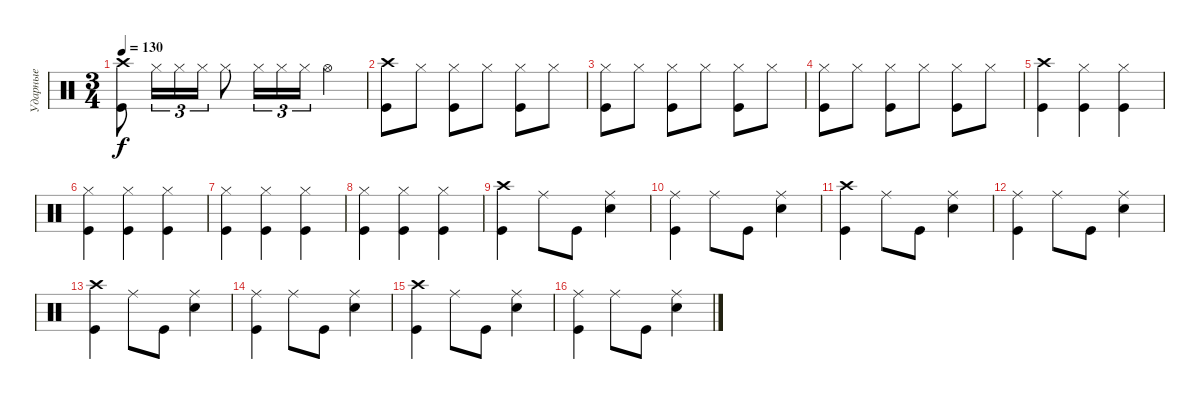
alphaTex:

\track ("Ударные" "Ударные") {instrument percussion}
\staff {score}
\articulation defaults
\ts (3 4)
\tempo 130
\clef neutral
\ks c
("Crash high (hit)" "Kick (hit)").8{dy f} "Hi-Hat (closed)".16{tu (3 2)} "Hi-Hat (closed)".16{tu (3 2)} "Hi-Hat (closed)".16{tu (3 2)} "Hi-Hat (closed)".8 "Hi-Hat (closed)".16{tu (3 2)} "Hi-Hat (closed)".16{tu (3 2)} "Hi-Hat (closed)".16{tu (3 2)} "Hi-Hat (open)".4 |
("Crash high (hit)" "Kick (hit)").8 "Hi-Hat (closed)".8 ("Hi-Hat (closed)" "Kick (hit)").8 "Hi-Hat (closed)".8 ("Hi-Hat (closed)" "Kick (hit)").8 "Hi-Hat (closed)".8 |
("Hi-Hat (closed)" "Kick (hit)").8 "Hi-Hat (closed)".8 ("Hi-Hat (closed)" "Kick (hit)").8 "Hi-Hat (closed)".8 ("Hi-Hat (closed)" "Kick (hit)").8 "Hi-Hat (closed)".8 |
("Hi-Hat (closed)" "Kick (hit)").8 "Hi-Hat (closed)".8 ("Hi-Hat (closed)" "Kick (hit)").8 "Hi-Hat (closed)".8 ("Hi-Hat (closed)" "Kick (hit)").8 "Hi-Hat (closed)".8 |
("Crash high (hit)" "Kick (hit)").4 ("Kick (hit)" "Hi-Hat (closed)").4 ("Hi-Hat (closed)" "Kick (hit)").4 |
("Hi-Hat (closed)" "Kick (hit)").4 ("Kick (hit)" "Hi-Hat (closed)").4 ("Hi-Hat (closed)" "Kick (hit)").4 |
("Hi-Hat (closed)" "Kick (hit)").4 ("Kick (hit)" "Hi-Hat (closed)").4 ("Hi-Hat (closed)" "Kick (hit)").4 |
("Hi-Hat (closed)" "Kick (hit)").4 ("Kick (hit)" "Hi-Hat (closed)").4 ("Hi-Hat (closed)" "Kick (hit)").4 |
("Crash high (hit)" "Kick (hit)").4 "Ride (middle)".8 "Kick (hit)".8 ("Ride (middle)" "Snare (hit) 2").4 |
("Ride (middle)" "Kick (hit)").4 "Ride (middle)".8 "Kick (hit)".8 ("Ride (middle)" "Snare (hit) 2").4 |
("Crash high (hit)" "Kick (hit)").4 "Ride (middle)".8 "Kick (hit)".8 ("Ride (middle)" "Snare (hit) 2").4 |
("Ride (middle)" "Kick (hit)").4 "Ride (middle)".8 "Kick (hit)".8 ("Ride (middle)" "Snare (hit) 2").4 |
("Crash high (hit)" "Kick (hit)").4 "Ride (middle)".8 "Kick (hit)".8 ("Ride (middle)" "Snare (hit) 2").4 |
("Ride (middle)" "Kick (hit)").4 "Ride (middle)".8 "Kick (hit)".8 ("Ride (middle)" "Snare (hit) 2").4 |
("Crash high (hit)" "Kick (hit)").4 "Ride (middle)".8 "Kick (hit)".8 ("Ride (middle)" "Snare (hit) 2").4 |
("Ride (middle)" "Kick (hit)").4 "Ride (middle)".8 "Kick (hit)".8 ("Ride (middle)" "Snare (hit) 2").4
